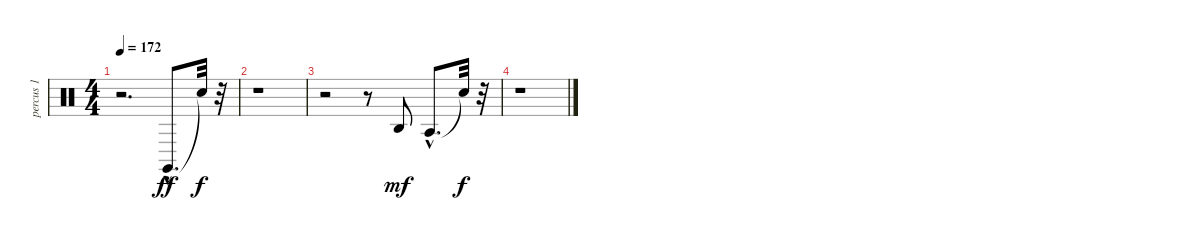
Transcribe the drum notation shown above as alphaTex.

\track ("percus 1" "percus 1") {instrument percussion}
\staff {score}
\articulation defaults
\ts (4 4)
\tempo 172
\clef neutral
\ks c
r.2{d dy f} "Claves (hit)"{hac}.8{d dy ff} "Snare (hit)"{t}.32{dy f} r.32 |
r.1 |
r.2 r.8 "Agogo high (hit)".8{dy mf} "Agogo tow (hit)"{hac}.8{d} "Snare (hit)"{t}.32{dy f} r.32 |
r.1
